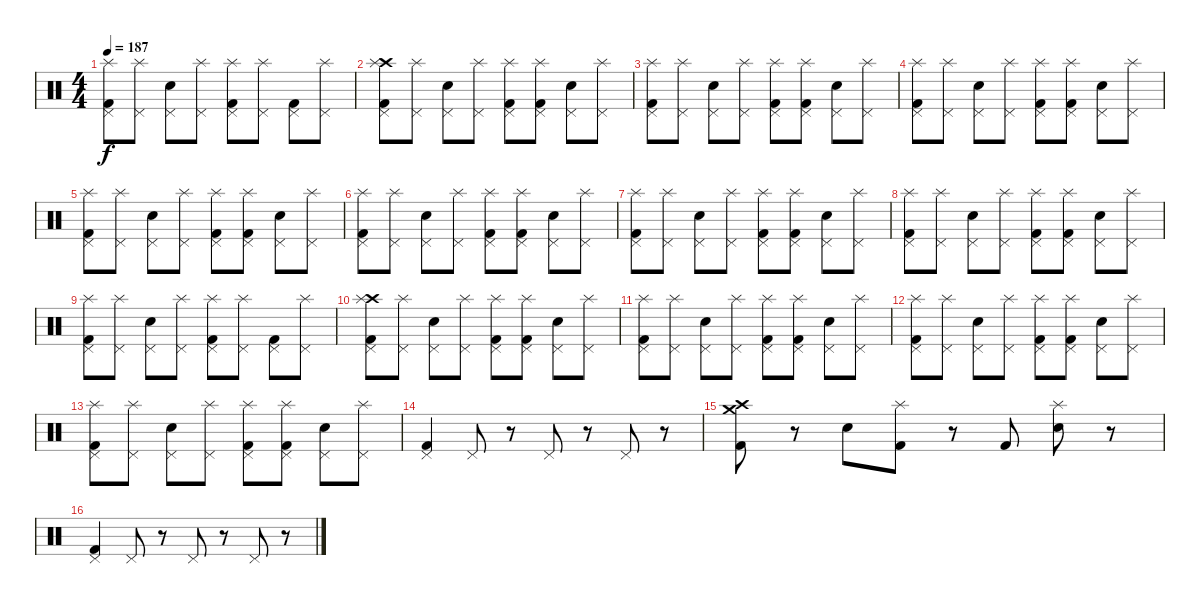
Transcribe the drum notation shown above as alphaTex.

\track "" {instrument percussion}
\staff {score}
\articulation defaults
\ts (4 4)
\tempo 187
\clef neutral
\ks c
("Splash (hit)" "Pedal Hi-Hat (hit)" "Kick (hit) 2").8{dy f} ("Splash (hit)" "Pedal Hi-Hat (hit)").8 ("Electric Snare (hit)" "Pedal Hi-Hat (hit)").8 ("Splash (hit)" "Pedal Hi-Hat (hit)").8 ("Splash (hit)" "Pedal Hi-Hat (hit)" "Kick (hit) 2").8 ("Splash (hit)" "Pedal Hi-Hat (hit)").8 ("Kick (hit) 2" "Pedal Hi-Hat (hit)").8 ("Splash (hit)" "Pedal Hi-Hat (hit)").8 |
("Pedal Hi-Hat (hit)" "Kick (hit) 2" "Crash high (hit)" "Splash (hit)").8 ("Pedal Hi-Hat (hit)" "Splash (hit)").8 ("Pedal Hi-Hat (hit)" "Electric Snare (hit)").8 ("Pedal Hi-Hat (hit)" "Splash (hit)").8 ("Pedal Hi-Hat (hit)" "Kick (hit) 2" "Splash (hit)").8 ("Pedal Hi-Hat (hit)" "Kick (hit) 2" "Splash (hit)").8 ("Pedal Hi-Hat (hit)" "Electric Snare (hit)").8 ("Pedal Hi-Hat (hit)" "Splash (hit)").8 |
("Splash (hit)" "Pedal Hi-Hat (hit)" "Kick (hit) 2").8 ("Splash (hit)" "Pedal Hi-Hat (hit)").8 ("Pedal Hi-Hat (hit)" "Electric Snare (hit)").8 ("Splash (hit)" "Pedal Hi-Hat (hit)").8 ("Splash (hit)" "Pedal Hi-Hat (hit)" "Kick (hit) 2").8 ("Splash (hit)" "Pedal Hi-Hat (hit)" "Kick (hit) 2").8 ("Pedal Hi-Hat (hit)" "Electric Snare (hit)").8 ("Splash (hit)" "Pedal Hi-Hat (hit)").8 |
("Splash (hit)" "Pedal Hi-Hat (hit)" "Kick (hit) 2").8 ("Splash (hit)" "Pedal Hi-Hat (hit)").8 ("Pedal Hi-Hat (hit)" "Electric Snare (hit)").8 ("Splash (hit)" "Pedal Hi-Hat (hit)").8 ("Splash (hit)" "Pedal Hi-Hat (hit)" "Kick (hit) 2").8 ("Splash (hit)" "Pedal Hi-Hat (hit)" "Kick (hit) 2").8 ("Pedal Hi-Hat (hit)" "Electric Snare (hit)").8 ("Splash (hit)" "Pedal Hi-Hat (hit)").8 |
("Splash (hit)" "Pedal Hi-Hat (hit)" "Kick (hit) 2").8 ("Splash (hit)" "Pedal Hi-Hat (hit)").8 ("Pedal Hi-Hat (hit)" "Electric Snare (hit)").8 ("Splash (hit)" "Pedal Hi-Hat (hit)").8 ("Splash (hit)" "Pedal Hi-Hat (hit)" "Kick (hit) 2").8 ("Splash (hit)" "Pedal Hi-Hat (hit)" "Kick (hit) 2").8 ("Pedal Hi-Hat (hit)" "Electric Snare (hit)").8 ("Splash (hit)" "Pedal Hi-Hat (hit)").8 |
("Splash (hit)" "Pedal Hi-Hat (hit)" "Kick (hit) 2").8 ("Splash (hit)" "Pedal Hi-Hat (hit)").8 ("Pedal Hi-Hat (hit)" "Electric Snare (hit)").8 ("Splash (hit)" "Pedal Hi-Hat (hit)").8 ("Splash (hit)" "Pedal Hi-Hat (hit)" "Kick (hit) 2").8 ("Splash (hit)" "Pedal Hi-Hat (hit)" "Kick (hit) 2").8 ("Pedal Hi-Hat (hit)" "Electric Snare (hit)").8 ("Splash (hit)" "Pedal Hi-Hat (hit)").8 |
("Splash (hit)" "Pedal Hi-Hat (hit)" "Kick (hit) 2").8 ("Splash (hit)" "Pedal Hi-Hat (hit)").8 ("Pedal Hi-Hat (hit)" "Electric Snare (hit)").8 ("Splash (hit)" "Pedal Hi-Hat (hit)").8 ("Splash (hit)" "Pedal Hi-Hat (hit)" "Kick (hit) 2").8 ("Splash (hit)" "Pedal Hi-Hat (hit)" "Kick (hit) 2").8 ("Pedal Hi-Hat (hit)" "Electric Snare (hit)").8 ("Splash (hit)" "Pedal Hi-Hat (hit)").8 |
("Splash (hit)" "Pedal Hi-Hat (hit)" "Kick (hit) 2").8 ("Splash (hit)" "Pedal Hi-Hat (hit)").8 ("Pedal Hi-Hat (hit)" "Electric Snare (hit)").8 ("Splash (hit)" "Pedal Hi-Hat (hit)").8 ("Splash (hit)" "Pedal Hi-Hat (hit)" "Kick (hit) 2").8 ("Splash (hit)" "Pedal Hi-Hat (hit)" "Kick (hit) 2").8 ("Pedal Hi-Hat (hit)" "Electric Snare (hit)").8 ("Splash (hit)" "Pedal Hi-Hat (hit)").8 |
("Splash (hit)" "Pedal Hi-Hat (hit)" "Kick (hit) 2").8 ("Splash (hit)" "Pedal Hi-Hat (hit)").8 ("Electric Snare (hit)" "Pedal Hi-Hat (hit)").8 ("Splash (hit)" "Pedal Hi-Hat (hit)").8 ("Splash (hit)" "Pedal Hi-Hat (hit)" "Kick (hit) 2").8 ("Splash (hit)" "Pedal Hi-Hat (hit)").8 ("Kick (hit) 2" "Pedal Hi-Hat (hit)").8 ("Splash (hit)" "Pedal Hi-Hat (hit)").8 |
("Pedal Hi-Hat (hit)" "Kick (hit) 2" "Crash high (hit)" "Splash (hit)").8 ("Pedal Hi-Hat (hit)" "Splash (hit)").8 ("Pedal Hi-Hat (hit)" "Electric Snare (hit)").8 ("Pedal Hi-Hat (hit)" "Splash (hit)").8 ("Pedal Hi-Hat (hit)" "Kick (hit) 2" "Splash (hit)").8 ("Pedal Hi-Hat (hit)" "Kick (hit) 2" "Splash (hit)").8 ("Pedal Hi-Hat (hit)" "Electric Snare (hit)").8 ("Pedal Hi-Hat (hit)" "Splash (hit)").8 |
("Splash (hit)" "Pedal Hi-Hat (hit)" "Kick (hit) 2").8 ("Splash (hit)" "Pedal Hi-Hat (hit)").8 ("Pedal Hi-Hat (hit)" "Electric Snare (hit)").8 ("Splash (hit)" "Pedal Hi-Hat (hit)").8 ("Splash (hit)" "Pedal Hi-Hat (hit)" "Kick (hit) 2").8 ("Splash (hit)" "Pedal Hi-Hat (hit)" "Kick (hit) 2").8 ("Pedal Hi-Hat (hit)" "Electric Snare (hit)").8 ("Splash (hit)" "Pedal Hi-Hat (hit)").8 |
("Splash (hit)" "Pedal Hi-Hat (hit)" "Kick (hit) 2").8 ("Splash (hit)" "Pedal Hi-Hat (hit)").8 ("Pedal Hi-Hat (hit)" "Electric Snare (hit)").8 ("Splash (hit)" "Pedal Hi-Hat (hit)").8 ("Splash (hit)" "Pedal Hi-Hat (hit)" "Kick (hit) 2").8 ("Splash (hit)" "Pedal Hi-Hat (hit)" "Kick (hit) 2").8 ("Pedal Hi-Hat (hit)" "Electric Snare (hit)").8 ("Splash (hit)" "Pedal Hi-Hat (hit)").8 |
("Splash (hit)" "Pedal Hi-Hat (hit)" "Kick (hit) 2").8 ("Splash (hit)" "Pedal Hi-Hat (hit)").8 ("Pedal Hi-Hat (hit)" "Electric Snare (hit)").8 ("Splash (hit)" "Pedal Hi-Hat (hit)").8 ("Splash (hit)" "Pedal Hi-Hat (hit)" "Kick (hit) 2").8 ("Splash (hit)" "Pedal Hi-Hat (hit)" "Kick (hit) 2").8 ("Pedal Hi-Hat (hit)" "Electric Snare (hit)").8 ("Splash (hit)" "Pedal Hi-Hat (hit)").8 |
("Pedal Hi-Hat (hit)" "Kick (hit) 2").4 "Pedal Hi-Hat (hit)".8 r.8 "Pedal Hi-Hat (hit)".8 r.8 "Pedal Hi-Hat (hit)".8 r.8 |
("Crash medium (hit)" "Crash high (hit)" "Kick (hit) 2").8 r.8 "Electric Snare (hit)".8 ("Splash (hit)" "Kick (hit) 2").8 r.8 "Kick (hit) 2".8 ("Splash (hit)" "Electric Snare (hit)").8 r.8 |
("Pedal Hi-Hat (hit)" "Kick (hit) 2").4 "Pedal Hi-Hat (hit)".8 r.8 "Pedal Hi-Hat (hit)".8 r.8 "Pedal Hi-Hat (hit)".8 r.8
